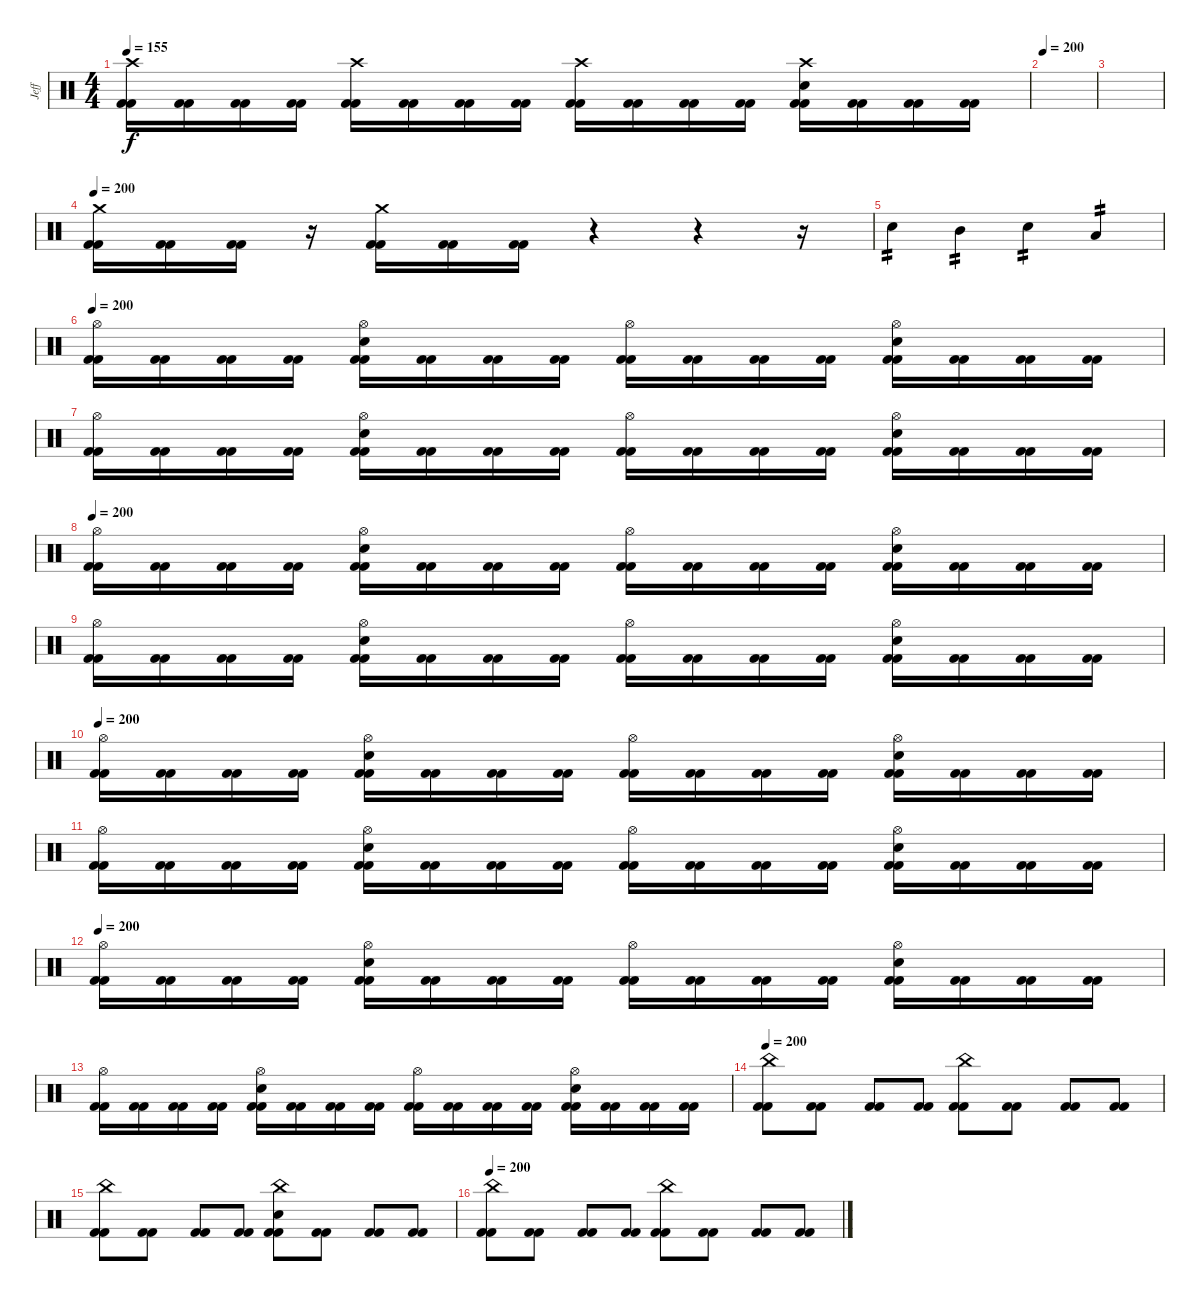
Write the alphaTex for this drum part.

\track ("Jeff" "Jeff") {instrument percussion}
\staff {score}
\articulation defaults
\ts (4 4)
\tempo 155
\clef neutral
\ks c
("Crash high (hit)" "Kick (hit) 2" "Kick (hit) 2").16{dy f} ("Kick (hit) 2" "Kick (hit) 2").16 ("Kick (hit) 2" "Kick (hit) 2").16 ("Kick (hit) 2" "Kick (hit) 2").16 ("Crash high (hit)" "Kick (hit) 2" "Kick (hit) 2").16 ("Kick (hit) 2" "Kick (hit) 2").16 ("Kick (hit) 2" "Kick (hit) 2").16 ("Kick (hit) 2" "Kick (hit) 2").16 ("Crash high (hit)" "Kick (hit) 2" "Kick (hit) 2").16 ("Kick (hit) 2" "Kick (hit) 2").16 ("Kick (hit) 2" "Kick (hit) 2").16 ("Kick (hit) 2" "Kick (hit) 2").16 ("Crash high (hit)" "Snare (hit) 2" "Kick (hit) 2" "Kick (hit) 2").16 ("Kick (hit) 2" "Kick (hit) 2").16 ("Kick (hit) 2" "Kick (hit) 2").16 ("Kick (hit) 2" "Kick (hit) 2").16 |
\tempo 200
|
|
\tempo 200
("Crash medium (hit)" "Kick (hit) 2" "Kick (hit) 2").16 ("Kick (hit) 2" "Kick (hit) 2").16 ("Kick (hit) 2" "Kick (hit) 2").16 r.16 ("Crash medium (hit)" "Kick (hit) 2" "Kick (hit) 2").16 ("Kick (hit) 2" "Kick (hit) 2").16 ("Kick (hit) 2" "Kick (hit) 2").16 r.4 r.4 r.16 |
"Snare (hit) 2".4{tp 2} "Mid Tom (hit)".4{tp 2} "Snare (hit) 2".4{tp 2} "Low Tom (hit)".4{tp 2} |
\tempo 200
("Hi-Hat (open)" "Kick (hit) 2" "Kick (hit) 2").16 ("Kick (hit) 2" "Kick (hit) 2").16 ("Kick (hit) 2" "Kick (hit) 2").16 ("Kick (hit) 2" "Kick (hit) 2").16 ("Hi-Hat (open)" "Snare (hit) 2" "Kick (hit) 2" "Kick (hit) 2").16 ("Kick (hit) 2" "Kick (hit) 2").16 ("Kick (hit) 2" "Kick (hit) 2").16 ("Kick (hit) 2" "Kick (hit) 2").16 ("Hi-Hat (open)" "Kick (hit) 2" "Kick (hit) 2").16 ("Kick (hit) 2" "Kick (hit) 2").16 ("Kick (hit) 2" "Kick (hit) 2").16 ("Kick (hit) 2" "Kick (hit) 2").16 ("Hi-Hat (open)" "Snare (hit) 2" "Kick (hit) 2" "Kick (hit) 2").16 ("Kick (hit) 2" "Kick (hit) 2").16 ("Kick (hit) 2" "Kick (hit) 2").16 ("Kick (hit) 2" "Kick (hit) 2").16 |
("Hi-Hat (open)" "Kick (hit) 2" "Kick (hit) 2").16 ("Kick (hit) 2" "Kick (hit) 2").16 ("Kick (hit) 2" "Kick (hit) 2").16 ("Kick (hit) 2" "Kick (hit) 2").16 ("Hi-Hat (open)" "Snare (hit) 2" "Kick (hit) 2" "Kick (hit) 2").16 ("Kick (hit) 2" "Kick (hit) 2").16 ("Kick (hit) 2" "Kick (hit) 2").16 ("Kick (hit) 2" "Kick (hit) 2").16 ("Hi-Hat (open)" "Kick (hit) 2" "Kick (hit) 2").16 ("Kick (hit) 2" "Kick (hit) 2").16 ("Kick (hit) 2" "Kick (hit) 2").16 ("Kick (hit) 2" "Kick (hit) 2").16 ("Hi-Hat (open)" "Snare (hit) 2" "Kick (hit) 2" "Kick (hit) 2").16 ("Kick (hit) 2" "Kick (hit) 2").16 ("Kick (hit) 2" "Kick (hit) 2").16 ("Kick (hit) 2" "Kick (hit) 2").16 |
\tempo 200
("Hi-Hat (open)" "Kick (hit) 2" "Kick (hit) 2").16 ("Kick (hit) 2" "Kick (hit) 2").16 ("Kick (hit) 2" "Kick (hit) 2").16 ("Kick (hit) 2" "Kick (hit) 2").16 ("Hi-Hat (open)" "Snare (hit) 2" "Kick (hit) 2" "Kick (hit) 2").16 ("Kick (hit) 2" "Kick (hit) 2").16 ("Kick (hit) 2" "Kick (hit) 2").16 ("Kick (hit) 2" "Kick (hit) 2").16 ("Hi-Hat (open)" "Kick (hit) 2" "Kick (hit) 2").16 ("Kick (hit) 2" "Kick (hit) 2").16 ("Kick (hit) 2" "Kick (hit) 2").16 ("Kick (hit) 2" "Kick (hit) 2").16 ("Hi-Hat (open)" "Snare (hit) 2" "Kick (hit) 2" "Kick (hit) 2").16 ("Kick (hit) 2" "Kick (hit) 2").16 ("Kick (hit) 2" "Kick (hit) 2").16 ("Kick (hit) 2" "Kick (hit) 2").16 |
("Hi-Hat (open)" "Kick (hit) 2" "Kick (hit) 2").16 ("Kick (hit) 2" "Kick (hit) 2").16 ("Kick (hit) 2" "Kick (hit) 2").16 ("Kick (hit) 2" "Kick (hit) 2").16 ("Hi-Hat (open)" "Snare (hit) 2" "Kick (hit) 2" "Kick (hit) 2").16 ("Kick (hit) 2" "Kick (hit) 2").16 ("Kick (hit) 2" "Kick (hit) 2").16 ("Kick (hit) 2" "Kick (hit) 2").16 ("Hi-Hat (open)" "Kick (hit) 2" "Kick (hit) 2").16 ("Kick (hit) 2" "Kick (hit) 2").16 ("Kick (hit) 2" "Kick (hit) 2").16 ("Kick (hit) 2" "Kick (hit) 2").16 ("Hi-Hat (open)" "Snare (hit) 2" "Kick (hit) 2" "Kick (hit) 2").16 ("Kick (hit) 2" "Kick (hit) 2").16 ("Kick (hit) 2" "Kick (hit) 2").16 ("Kick (hit) 2" "Kick (hit) 2").16 |
\tempo 200
("Hi-Hat (open)" "Kick (hit) 2" "Kick (hit) 2").16 ("Kick (hit) 2" "Kick (hit) 2").16 ("Kick (hit) 2" "Kick (hit) 2").16 ("Kick (hit) 2" "Kick (hit) 2").16 ("Hi-Hat (open)" "Snare (hit) 2" "Kick (hit) 2" "Kick (hit) 2").16 ("Kick (hit) 2" "Kick (hit) 2").16 ("Kick (hit) 2" "Kick (hit) 2").16 ("Kick (hit) 2" "Kick (hit) 2").16 ("Hi-Hat (open)" "Kick (hit) 2" "Kick (hit) 2").16 ("Kick (hit) 2" "Kick (hit) 2").16 ("Kick (hit) 2" "Kick (hit) 2").16 ("Kick (hit) 2" "Kick (hit) 2").16 ("Hi-Hat (open)" "Snare (hit) 2" "Kick (hit) 2" "Kick (hit) 2").16 ("Kick (hit) 2" "Kick (hit) 2").16 ("Kick (hit) 2" "Kick (hit) 2").16 ("Kick (hit) 2" "Kick (hit) 2").16 |
("Hi-Hat (open)" "Kick (hit) 2" "Kick (hit) 2").16 ("Kick (hit) 2" "Kick (hit) 2").16 ("Kick (hit) 2" "Kick (hit) 2").16 ("Kick (hit) 2" "Kick (hit) 2").16 ("Hi-Hat (open)" "Snare (hit) 2" "Kick (hit) 2" "Kick (hit) 2").16 ("Kick (hit) 2" "Kick (hit) 2").16 ("Kick (hit) 2" "Kick (hit) 2").16 ("Kick (hit) 2" "Kick (hit) 2").16 ("Hi-Hat (open)" "Kick (hit) 2" "Kick (hit) 2").16 ("Kick (hit) 2" "Kick (hit) 2").16 ("Kick (hit) 2" "Kick (hit) 2").16 ("Kick (hit) 2" "Kick (hit) 2").16 ("Hi-Hat (open)" "Snare (hit) 2" "Kick (hit) 2" "Kick (hit) 2").16 ("Kick (hit) 2" "Kick (hit) 2").16 ("Kick (hit) 2" "Kick (hit) 2").16 ("Kick (hit) 2" "Kick (hit) 2").16 |
\tempo 200
("Hi-Hat (open)" "Kick (hit) 2" "Kick (hit) 2").16 ("Kick (hit) 2" "Kick (hit) 2").16 ("Kick (hit) 2" "Kick (hit) 2").16 ("Kick (hit) 2" "Kick (hit) 2").16 ("Hi-Hat (open)" "Snare (hit) 2" "Kick (hit) 2" "Kick (hit) 2").16 ("Kick (hit) 2" "Kick (hit) 2").16 ("Kick (hit) 2" "Kick (hit) 2").16 ("Kick (hit) 2" "Kick (hit) 2").16 ("Hi-Hat (open)" "Kick (hit) 2" "Kick (hit) 2").16 ("Kick (hit) 2" "Kick (hit) 2").16 ("Kick (hit) 2" "Kick (hit) 2").16 ("Kick (hit) 2" "Kick (hit) 2").16 ("Hi-Hat (open)" "Snare (hit) 2" "Kick (hit) 2" "Kick (hit) 2").16 ("Kick (hit) 2" "Kick (hit) 2").16 ("Kick (hit) 2" "Kick (hit) 2").16 ("Kick (hit) 2" "Kick (hit) 2").16 |
("Hi-Hat (open)" "Kick (hit) 2" "Kick (hit) 2").16 ("Kick (hit) 2" "Kick (hit) 2").16 ("Kick (hit) 2" "Kick (hit) 2").16 ("Kick (hit) 2" "Kick (hit) 2").16 ("Hi-Hat (open)" "Snare (hit) 2" "Kick (hit) 2" "Kick (hit) 2").16 ("Kick (hit) 2" "Kick (hit) 2").16 ("Kick (hit) 2" "Kick (hit) 2").16 ("Kick (hit) 2" "Kick (hit) 2").16 ("Hi-Hat (open)" "Kick (hit) 2" "Kick (hit) 2").16 ("Kick (hit) 2" "Kick (hit) 2").16 ("Kick (hit) 2" "Kick (hit) 2").16 ("Kick (hit) 2" "Kick (hit) 2").16 ("Hi-Hat (open)" "Snare (hit) 2" "Kick (hit) 2" "Kick (hit) 2").16 ("Kick (hit) 2" "Kick (hit) 2").16 ("Kick (hit) 2" "Kick (hit) 2").16 ("Kick (hit) 2" "Kick (hit) 2").16 |
\tempo 200
("China (hit)" "Kick (hit) 2" "Kick (hit) 2").8 ("Kick (hit) 2" "Kick (hit) 2").8 ("Kick (hit) 2" "Kick (hit) 2").8 ("Kick (hit) 2" "Kick (hit) 2").8 ("China (hit)" "Kick (hit) 2" "Kick (hit) 2").8 ("Kick (hit) 2" "Kick (hit) 2").8 ("Kick (hit) 2" "Kick (hit) 2").8 ("Kick (hit) 2" "Kick (hit) 2").8 |
("China (hit)" "Kick (hit) 2" "Kick (hit) 2").8 ("Kick (hit) 2" "Kick (hit) 2").8 ("Kick (hit) 2" "Kick (hit) 2").8 ("Kick (hit) 2" "Kick (hit) 2").8 ("China (hit)" "Snare (hit) 2" "Kick (hit) 2" "Kick (hit) 2").8 ("Kick (hit) 2" "Kick (hit) 2").8 ("Kick (hit) 2" "Kick (hit) 2").8 ("Kick (hit) 2" "Kick (hit) 2").8 |
\tempo 200
("China (hit)" "Kick (hit) 2" "Kick (hit) 2").8 ("Kick (hit) 2" "Kick (hit) 2").8 ("Kick (hit) 2" "Kick (hit) 2").8 ("Kick (hit) 2" "Kick (hit) 2").8 ("China (hit)" "Kick (hit) 2" "Kick (hit) 2").8 ("Kick (hit) 2" "Kick (hit) 2").8 ("Kick (hit) 2" "Kick (hit) 2").8 ("Kick (hit) 2" "Kick (hit) 2").8
